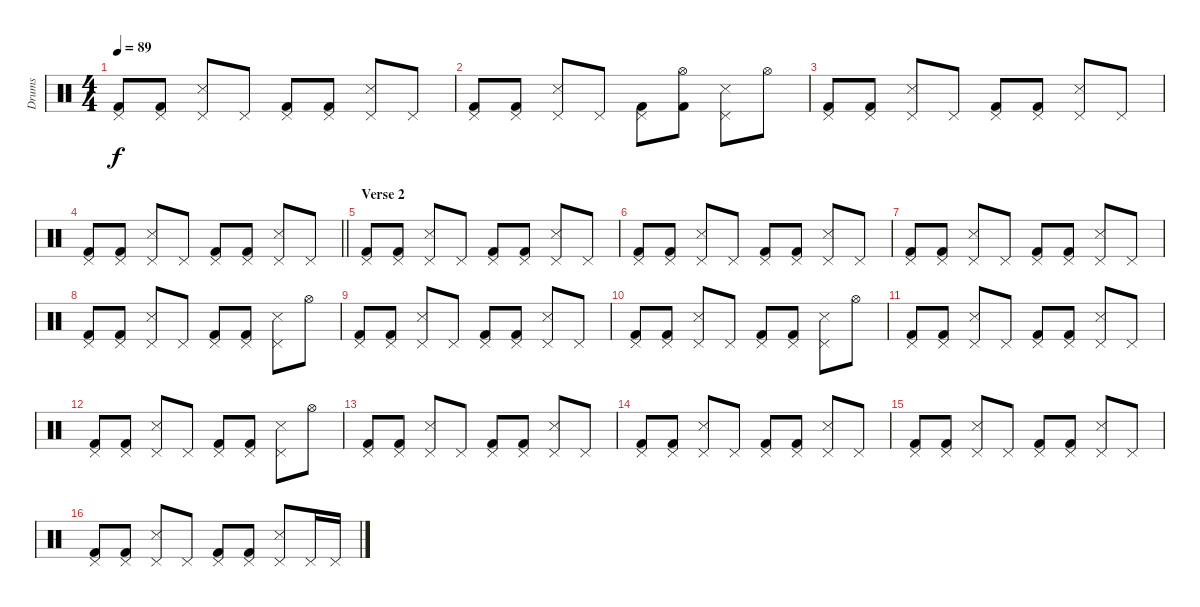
\track ("Drums" "Drums") {instrument percussion}
\staff {score}
\articulation defaults
\ts (4 4)
\tempo 89
\clef neutral
\ks c
("Pedal Hi-Hat (hit)" "Kick (hit) 2").8{dy f} ("Pedal Hi-Hat (hit)" "Kick (hit) 2").8 ("Pedal Hi-Hat (hit)" "Snare (side stick) 3").8 "Pedal Hi-Hat (hit)".8 ("Pedal Hi-Hat (hit)" "Kick (hit) 2").8 ("Pedal Hi-Hat (hit)" "Kick (hit) 2").8 ("Pedal Hi-Hat (hit)" "Snare (side stick) 3").8 "Pedal Hi-Hat (hit)".8 |
("Pedal Hi-Hat (hit)" "Kick (hit) 2").8 ("Pedal Hi-Hat (hit)" "Kick (hit) 2").8 ("Pedal Hi-Hat (hit)" "Snare (side stick) 3").8 "Pedal Hi-Hat (hit)".8 ("Pedal Hi-Hat (hit)" "Kick (hit) 2").8 ("Hi-Hat (open)" "Kick (hit) 2").8 ("Pedal Hi-Hat (hit)" "Snare (side stick) 3").8 "Hi-Hat (open)".8 |
("Pedal Hi-Hat (hit)" "Kick (hit) 2").8 ("Pedal Hi-Hat (hit)" "Kick (hit) 2").8 ("Pedal Hi-Hat (hit)" "Snare (side stick) 3").8 "Pedal Hi-Hat (hit)".8 ("Pedal Hi-Hat (hit)" "Kick (hit) 2").8 ("Pedal Hi-Hat (hit)" "Kick (hit) 2").8 ("Pedal Hi-Hat (hit)" "Snare (side stick) 3").8 "Pedal Hi-Hat (hit)".8 |
\barLineRight lightlight
("Pedal Hi-Hat (hit)" "Kick (hit) 2").8 ("Pedal Hi-Hat (hit)" "Kick (hit) 2").8 ("Pedal Hi-Hat (hit)" "Snare (side stick) 3").8 "Pedal Hi-Hat (hit)".8 ("Pedal Hi-Hat (hit)" "Kick (hit) 2").8 ("Pedal Hi-Hat (hit)" "Kick (hit) 2").8 ("Pedal Hi-Hat (hit)" "Snare (side stick) 3").8 "Pedal Hi-Hat (hit)".8 |
\section ("" "Verse 2")
("Pedal Hi-Hat (hit)" "Kick (hit) 2").8 ("Pedal Hi-Hat (hit)" "Kick (hit) 2").8 ("Pedal Hi-Hat (hit)" "Snare (side stick) 3").8 "Pedal Hi-Hat (hit)".8 ("Pedal Hi-Hat (hit)" "Kick (hit) 2").8 ("Pedal Hi-Hat (hit)" "Kick (hit) 2").8 ("Pedal Hi-Hat (hit)" "Snare (side stick) 3").8 "Pedal Hi-Hat (hit)".8 |
("Pedal Hi-Hat (hit)" "Kick (hit) 2").8 ("Pedal Hi-Hat (hit)" "Kick (hit) 2").8 ("Pedal Hi-Hat (hit)" "Snare (side stick) 3").8 "Pedal Hi-Hat (hit)".8 ("Pedal Hi-Hat (hit)" "Kick (hit) 2").8 ("Pedal Hi-Hat (hit)" "Kick (hit) 2").8 ("Pedal Hi-Hat (hit)" "Snare (side stick) 3").8 "Pedal Hi-Hat (hit)".8 |
("Pedal Hi-Hat (hit)" "Kick (hit) 2").8 ("Pedal Hi-Hat (hit)" "Kick (hit) 2").8 ("Pedal Hi-Hat (hit)" "Snare (side stick) 3").8 "Pedal Hi-Hat (hit)".8 ("Pedal Hi-Hat (hit)" "Kick (hit) 2").8 ("Pedal Hi-Hat (hit)" "Kick (hit) 2").8 ("Pedal Hi-Hat (hit)" "Snare (side stick) 3").8 "Pedal Hi-Hat (hit)".8 |
("Pedal Hi-Hat (hit)" "Kick (hit) 2").8 ("Pedal Hi-Hat (hit)" "Kick (hit) 2").8 ("Pedal Hi-Hat (hit)" "Snare (side stick) 3").8 "Pedal Hi-Hat (hit)".8 ("Pedal Hi-Hat (hit)" "Kick (hit) 2").8 ("Pedal Hi-Hat (hit)" "Kick (hit) 2").8 ("Pedal Hi-Hat (hit)" "Snare (side stick) 3").8 "Hi-Hat (open)".8 |
("Pedal Hi-Hat (hit)" "Kick (hit) 2").8 ("Pedal Hi-Hat (hit)" "Kick (hit) 2").8 ("Pedal Hi-Hat (hit)" "Snare (side stick) 3").8 "Pedal Hi-Hat (hit)".8 ("Pedal Hi-Hat (hit)" "Kick (hit) 2").8 ("Pedal Hi-Hat (hit)" "Kick (hit) 2").8 ("Pedal Hi-Hat (hit)" "Snare (side stick) 3").8 "Pedal Hi-Hat (hit)".8 |
("Pedal Hi-Hat (hit)" "Kick (hit) 2").8 ("Pedal Hi-Hat (hit)" "Kick (hit) 2").8 ("Pedal Hi-Hat (hit)" "Snare (side stick) 3").8 "Pedal Hi-Hat (hit)".8 ("Pedal Hi-Hat (hit)" "Kick (hit) 2").8 ("Pedal Hi-Hat (hit)" "Kick (hit) 2").8 ("Pedal Hi-Hat (hit)" "Snare (side stick) 3").8 "Hi-Hat (open)".8 |
("Pedal Hi-Hat (hit)" "Kick (hit) 2").8 ("Pedal Hi-Hat (hit)" "Kick (hit) 2").8 ("Pedal Hi-Hat (hit)" "Snare (side stick) 3").8 "Pedal Hi-Hat (hit)".8 ("Pedal Hi-Hat (hit)" "Kick (hit) 2").8 ("Pedal Hi-Hat (hit)" "Kick (hit) 2").8 ("Pedal Hi-Hat (hit)" "Snare (side stick) 3").8 "Pedal Hi-Hat (hit)".8 |
("Pedal Hi-Hat (hit)" "Kick (hit) 2").8 ("Pedal Hi-Hat (hit)" "Kick (hit) 2").8 ("Pedal Hi-Hat (hit)" "Snare (side stick) 3").8 "Pedal Hi-Hat (hit)".8 ("Pedal Hi-Hat (hit)" "Kick (hit) 2").8 ("Pedal Hi-Hat (hit)" "Kick (hit) 2").8 ("Pedal Hi-Hat (hit)" "Snare (side stick) 3").8 "Hi-Hat (open)".8 |
("Pedal Hi-Hat (hit)" "Kick (hit) 2").8 ("Pedal Hi-Hat (hit)" "Kick (hit) 2").8 ("Pedal Hi-Hat (hit)" "Snare (side stick) 3").8 "Pedal Hi-Hat (hit)".8 ("Pedal Hi-Hat (hit)" "Kick (hit) 2").8 ("Pedal Hi-Hat (hit)" "Kick (hit) 2").8 ("Pedal Hi-Hat (hit)" "Snare (side stick) 3").8 "Pedal Hi-Hat (hit)".8 |
("Pedal Hi-Hat (hit)" "Kick (hit) 2").8 ("Pedal Hi-Hat (hit)" "Kick (hit) 2").8 ("Pedal Hi-Hat (hit)" "Snare (side stick) 3").8 "Pedal Hi-Hat (hit)".8 ("Pedal Hi-Hat (hit)" "Kick (hit) 2").8 ("Pedal Hi-Hat (hit)" "Kick (hit) 2").8 ("Pedal Hi-Hat (hit)" "Snare (side stick) 3").8 "Pedal Hi-Hat (hit)".8 |
("Pedal Hi-Hat (hit)" "Kick (hit) 2").8 ("Pedal Hi-Hat (hit)" "Kick (hit) 2").8 ("Pedal Hi-Hat (hit)" "Snare (side stick) 3").8 "Pedal Hi-Hat (hit)".8 ("Pedal Hi-Hat (hit)" "Kick (hit) 2").8 ("Pedal Hi-Hat (hit)" "Kick (hit) 2").8 ("Pedal Hi-Hat (hit)" "Snare (side stick) 3").8 "Pedal Hi-Hat (hit)".8 |
("Pedal Hi-Hat (hit)" "Kick (hit) 2").8 ("Pedal Hi-Hat (hit)" "Kick (hit) 2").8 ("Pedal Hi-Hat (hit)" "Snare (side stick) 3").8 "Pedal Hi-Hat (hit)".8 ("Pedal Hi-Hat (hit)" "Kick (hit) 2").8 ("Pedal Hi-Hat (hit)" "Kick (hit) 2").8 ("Pedal Hi-Hat (hit)" "Snare (side stick) 3").8 "Pedal Hi-Hat (hit)".16 "Pedal Hi-Hat (hit)".16
